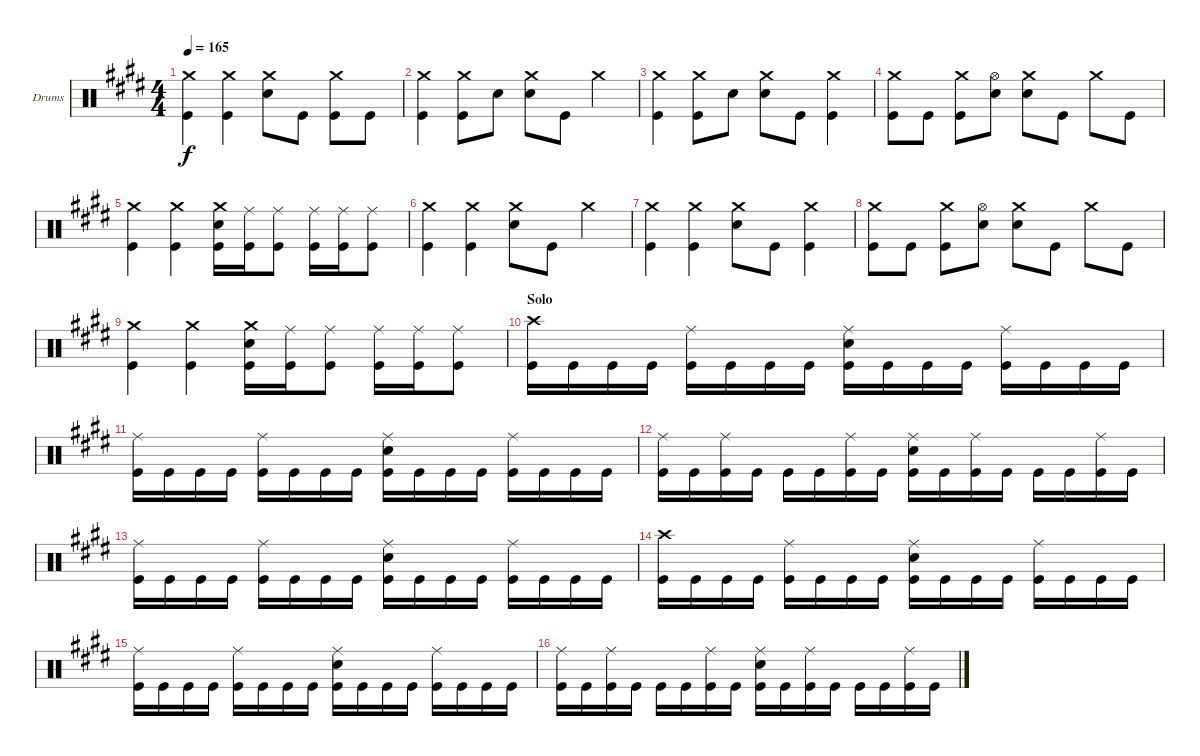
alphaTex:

\defaultSystemsLayout 4
\bracketExtendMode groupsimilarinstruments
\firstSystemTrackNameOrientation horizontal
\otherSystemsTrackNameOrientation horizontal
\track ("Corey Friedlander - Drums" "Drums") {instrument percussion}
\staff {score}
\articulation defaults
\ts (4 4)
\tempo 165
\clef neutral
\ks c#minor
("Kick (hit)" "Crash medium (hit)").4{dy f} ("Kick (hit)" "Crash medium (hit)").4 ("Crash medium (hit)" "Snare (hit) 2").8 "Kick (hit)".8 ("Crash medium (hit)" "Kick (hit)").8 "Kick (hit)".8 |
("Kick (hit)" "Crash medium (hit)").4 ("Crash medium (hit)" "Kick (hit)").8 "Snare (hit) 2".8 ("Crash medium (hit)" "Snare (hit) 2").8 "Kick (hit)".8 "Crash medium (hit)".4 |
\scale
0.384054 ("Kick (hit)" "Crash medium (hit)").4 ("Crash medium (hit)" "Kick (hit)").8 "Snare (hit) 2".8 ("Crash medium (hit)" "Snare (hit) 2").8 "Kick (hit)".8 ("Crash medium (hit)" "Kick (hit)").4 |
\scale
0.272743 ("Kick (hit)" "Crash medium (hit)").8 "Kick (hit)".8 ("Kick (hit)" "Crash medium (hit)").8 ("Snare (hit) 2" "Hi-Hat (open)").8 ("Crash medium (hit)" "Snare (hit) 2").8 "Kick (hit)".8 "Crash medium (hit)".8 "Kick (hit)".8 |
\scale
0.343195 ("Kick (hit)" "Crash medium (hit)").4 ("Kick (hit)" "Crash medium (hit)").4 ("Crash medium (hit)" "Snare (hit) 2" "Kick (hit)").16 ("Ride (middle)" "Kick (hit)").16 ("Ride (middle)" "Kick (hit)").8 ("Ride (middle)" "Kick (hit)").16 ("Ride (middle)" "Kick (hit)").16 ("Ride (middle)" "Kick (hit)").8 |
("Kick (hit)" "Crash medium (hit)").4 ("Kick (hit)" "Crash medium (hit)").4 ("Crash medium (hit)" "Snare (hit) 2").8 "Kick (hit)".8 "Crash medium (hit)".4 |
("Kick (hit)" "Crash medium (hit)").4 ("Kick (hit)" "Crash medium (hit)").4 ("Crash medium (hit)" "Snare (hit) 2").8 "Kick (hit)".8 ("Crash medium (hit)" "Kick (hit)").4 |
("Kick (hit)" "Crash medium (hit)").8 "Kick (hit)".8 ("Kick (hit)" "Crash medium (hit)").8 ("Snare (hit) 2" "Hi-Hat (open)").8 ("Crash medium (hit)" "Snare (hit) 2").8 "Kick (hit)".8 "Crash medium (hit)".8 "Kick (hit)".8 |
("Kick (hit)" "Crash medium (hit)").4 ("Kick (hit)" "Crash medium (hit)").4 ("Crash medium (hit)" "Snare (hit) 2" "Kick (hit)").16 ("Ride (middle)" "Kick (hit)").16 ("Ride (middle)" "Kick (hit)").8 ("Ride (middle)" "Kick (hit)").16 ("Ride (middle)" "Kick (hit)").16 ("Ride (middle)" "Kick (hit)").8 |
\section ("" "Solo")
("Kick (hit)" "Crash high (hit)").16 "Kick (hit)".16 "Kick (hit)".16 "Kick (hit)".16 ("Kick (hit)" "Ride (middle)").16 "Kick (hit)".16 "Kick (hit)".16 "Kick (hit)".16 ("Kick (hit)" "Ride (middle)" "Snare (hit) 2").16 "Kick (hit)".16 "Kick (hit)".16 "Kick (hit)".16 ("Kick (hit)" "Ride (middle)").16 "Kick (hit)".16 "Kick (hit)".16 "Kick (hit)".16 |
("Kick (hit)" "Ride (middle)").16 "Kick (hit)".16 "Kick (hit)".16 "Kick (hit)".16 ("Kick (hit)" "Ride (middle)").16 "Kick (hit)".16 "Kick (hit)".16 "Kick (hit)".16 ("Kick (hit)" "Ride (middle)" "Snare (hit) 2").16 "Kick (hit)".16 "Kick (hit)".16 "Kick (hit)".16 ("Kick (hit)" "Ride (middle)").16 "Kick (hit)".16 "Kick (hit)".16 "Kick (hit)".16 |
("Kick (hit)" "Ride (middle)").16 "Kick (hit)".16 ("Kick (hit)" "Ride (middle)").16 "Kick (hit)".16 "Kick (hit)".16 "Kick (hit)".16 ("Kick (hit)" "Ride (middle)").16 "Kick (hit)".16 ("Kick (hit)" "Ride (middle)" "Snare (hit) 2").16 "Kick (hit)".16 ("Kick (hit)" "Ride (middle)").16 "Kick (hit)".16 "Kick (hit)".16 "Kick (hit)".16 ("Kick (hit)" "Ride (middle)").16 "Kick (hit)".16 |
("Kick (hit)" "Ride (middle)").16 "Kick (hit)".16 "Kick (hit)".16 "Kick (hit)".16 ("Kick (hit)" "Ride (middle)").16 "Kick (hit)".16 "Kick (hit)".16 "Kick (hit)".16 ("Kick (hit)" "Ride (middle)" "Snare (hit) 2").16 "Kick (hit)".16 "Kick (hit)".16 "Kick (hit)".16 ("Kick (hit)" "Ride (middle)").16 "Kick (hit)".16 "Kick (hit)".16 "Kick (hit)".16 |
("Kick (hit)" "Crash high (hit)").16 "Kick (hit)".16 "Kick (hit)".16 "Kick (hit)".16 ("Kick (hit)" "Ride (middle)").16 "Kick (hit)".16 "Kick (hit)".16 "Kick (hit)".16 ("Kick (hit)" "Ride (middle)" "Snare (hit) 2").16 "Kick (hit)".16 "Kick (hit)".16 "Kick (hit)".16 ("Kick (hit)" "Ride (middle)").16 "Kick (hit)".16 "Kick (hit)".16 "Kick (hit)".16 |
("Kick (hit)" "Ride (middle)").16 "Kick (hit)".16 "Kick (hit)".16 "Kick (hit)".16 ("Kick (hit)" "Ride (middle)").16 "Kick (hit)".16 "Kick (hit)".16 "Kick (hit)".16 ("Kick (hit)" "Ride (middle)" "Snare (hit) 2").16 "Kick (hit)".16 "Kick (hit)".16 "Kick (hit)".16 ("Kick (hit)" "Ride (middle)").16 "Kick (hit)".16 "Kick (hit)".16 "Kick (hit)".16 |
("Kick (hit)" "Ride (middle)").16 "Kick (hit)".16 ("Kick (hit)" "Ride (middle)").16 "Kick (hit)".16 "Kick (hit)".16 "Kick (hit)".16 ("Kick (hit)" "Ride (middle)").16 "Kick (hit)".16 ("Kick (hit)" "Ride (middle)" "Snare (hit) 2").16 "Kick (hit)".16 ("Kick (hit)" "Ride (middle)").16 "Kick (hit)".16 "Kick (hit)".16 "Kick (hit)".16 ("Kick (hit)" "Ride (middle)").16 "Kick (hit)".16
